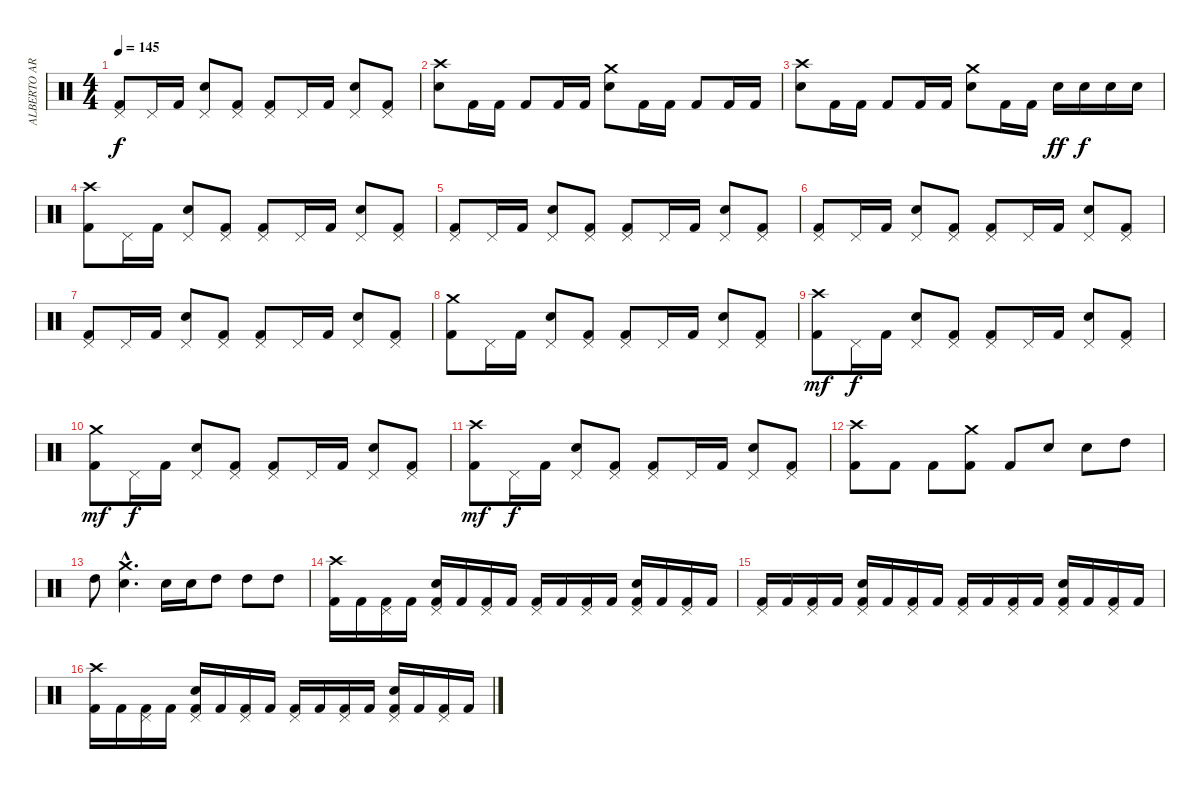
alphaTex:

\track ("ALBERTO ARDINES" "ALBERTO AR") {instrument percussion}
\staff {score}
\articulation defaults
\ts (4 4)
\tempo 145
\clef neutral
\ks c
("Pedal Hi-Hat (hit)" "Kick (hit) 2").8{dy f} "Pedal Hi-Hat (hit)".16 "Kick (hit) 2".16 ("Pedal Hi-Hat (hit)" "Electric Snare (hit)").8 ("Pedal Hi-Hat (hit)" "Kick (hit) 2").8 ("Pedal Hi-Hat (hit)" "Kick (hit) 2").8 "Pedal Hi-Hat (hit)".16 "Kick (hit) 2".16 ("Pedal Hi-Hat (hit)" "Electric Snare (hit)").8 ("Pedal Hi-Hat (hit)" "Kick (hit) 2").8 |
("Crash high (hit)" "Electric Snare (hit)").8 "Kick (hit) 2".16 "Kick (hit) 2".16 "Kick (hit) 2".8 "Kick (hit) 2".16 "Kick (hit) 2".16 ("Crash medium (hit)" "Electric Snare (hit)").8 "Kick (hit) 2".16 "Kick (hit) 2".16 "Kick (hit) 2".8 "Kick (hit) 2".16 "Kick (hit) 2".16 |
("Crash high (hit)" "Electric Snare (hit)").8 "Kick (hit) 2".16 "Kick (hit) 2".16 "Kick (hit) 2".8 "Kick (hit) 2".16 "Kick (hit) 2".16 ("Crash medium (hit)" "Electric Snare (hit)").8 "Kick (hit) 2".16 "Kick (hit) 2".16 "Electric Snare (hit)".16{dy ff} "Electric Snare (hit)".16{dy f} "Electric Snare (hit)".16 "Electric Snare (hit)".16 |
("Crash high (hit)" "Kick (hit) 2").8 "Pedal Hi-Hat (hit)".16 "Kick (hit) 2".16 ("Pedal Hi-Hat (hit)" "Electric Snare (hit)").8 ("Pedal Hi-Hat (hit)" "Kick (hit) 2").8 ("Pedal Hi-Hat (hit)" "Kick (hit) 2").8 "Pedal Hi-Hat (hit)".16 "Kick (hit) 2".16 ("Pedal Hi-Hat (hit)" "Electric Snare (hit)").8 ("Pedal Hi-Hat (hit)" "Kick (hit) 2").8 |
("Pedal Hi-Hat (hit)" "Kick (hit) 2").8 "Pedal Hi-Hat (hit)".16 "Kick (hit) 2".16 ("Pedal Hi-Hat (hit)" "Electric Snare (hit)").8 ("Pedal Hi-Hat (hit)" "Kick (hit) 2").8 ("Pedal Hi-Hat (hit)" "Kick (hit) 2").8 "Pedal Hi-Hat (hit)".16 "Kick (hit) 2".16 ("Pedal Hi-Hat (hit)" "Electric Snare (hit)").8 ("Pedal Hi-Hat (hit)" "Kick (hit) 2").8 |
("Pedal Hi-Hat (hit)" "Kick (hit) 2").8 "Pedal Hi-Hat (hit)".16 "Kick (hit) 2".16 ("Pedal Hi-Hat (hit)" "Electric Snare (hit)").8 ("Pedal Hi-Hat (hit)" "Kick (hit) 2").8 ("Pedal Hi-Hat (hit)" "Kick (hit) 2").8 "Pedal Hi-Hat (hit)".16 "Kick (hit) 2".16 ("Pedal Hi-Hat (hit)" "Electric Snare (hit)").8 ("Pedal Hi-Hat (hit)" "Kick (hit) 2").8 |
("Pedal Hi-Hat (hit)" "Kick (hit) 2").8 "Pedal Hi-Hat (hit)".16 "Kick (hit) 2".16 ("Pedal Hi-Hat (hit)" "Electric Snare (hit)").8 ("Pedal Hi-Hat (hit)" "Kick (hit) 2").8 ("Pedal Hi-Hat (hit)" "Kick (hit) 2").8 "Pedal Hi-Hat (hit)".16 "Kick (hit) 2".16 ("Pedal Hi-Hat (hit)" "Electric Snare (hit)").8 ("Pedal Hi-Hat (hit)" "Kick (hit) 2").8 |
("Crash medium (hit)" "Kick (hit) 2").8 "Pedal Hi-Hat (hit)".16 "Kick (hit) 2".16 ("Pedal Hi-Hat (hit)" "Electric Snare (hit)").8 ("Pedal Hi-Hat (hit)" "Kick (hit) 2").8 ("Pedal Hi-Hat (hit)" "Kick (hit) 2").8 "Pedal Hi-Hat (hit)".16 "Kick (hit) 2".16 ("Pedal Hi-Hat (hit)" "Electric Snare (hit)").8 ("Pedal Hi-Hat (hit)" "Kick (hit) 2").8 |
("Crash high (hit)" "Kick (hit) 2").8{dy mf} "Pedal Hi-Hat (hit)".16{dy f} "Kick (hit) 2".16 ("Pedal Hi-Hat (hit)" "Electric Snare (hit)").8 ("Pedal Hi-Hat (hit)" "Kick (hit) 2").8 ("Pedal Hi-Hat (hit)" "Kick (hit) 2").8 "Pedal Hi-Hat (hit)".16 "Kick (hit) 2".16 ("Pedal Hi-Hat (hit)" "Electric Snare (hit)").8 ("Pedal Hi-Hat (hit)" "Kick (hit) 2").8 |
("Crash medium (hit)" "Kick (hit) 2").8{dy mf} "Pedal Hi-Hat (hit)".16{dy f} "Kick (hit) 2".16 ("Pedal Hi-Hat (hit)" "Electric Snare (hit)").8 ("Pedal Hi-Hat (hit)" "Kick (hit) 2").8 ("Pedal Hi-Hat (hit)" "Kick (hit) 2").8 "Pedal Hi-Hat (hit)".16 "Kick (hit) 2".16 ("Pedal Hi-Hat (hit)" "Electric Snare (hit)").8 ("Pedal Hi-Hat (hit)" "Kick (hit) 2").8 |
("Crash high (hit)" "Kick (hit) 2").8{dy mf} "Pedal Hi-Hat (hit)".16{dy f} "Kick (hit) 2".16 ("Pedal Hi-Hat (hit)" "Electric Snare (hit)").8 ("Pedal Hi-Hat (hit)" "Kick (hit) 2").8 ("Pedal Hi-Hat (hit)" "Kick (hit) 2").8 "Pedal Hi-Hat (hit)".16 "Kick (hit) 2".16 ("Pedal Hi-Hat (hit)" "Electric Snare (hit)").8 ("Pedal Hi-Hat (hit)" "Kick (hit) 2").8 |
("Crash high (hit)" "Kick (hit) 2").8 "Kick (hit) 2".8 "Kick (hit) 2".8 ("Crash medium (hit)" "Kick (hit) 2").8 "Kick (hit) 2".8 "Electric Snare (hit)".8 "Electric Snare (hit)".8 "High Tom (hit)".8 |
"High Tom (hit)".8 ("Crash medium (hit)"{hac} "Electric Snare (hit)"{hac}).4{d} "Electric Snare (hit)".16 "Electric Snare (hit)".16 "High Tom (hit)".8 "High Tom (hit)".8 "High Tom (hit)".8 |
("Crash high (hit)" "Kick (hit) 2").16 "Kick (hit) 2".16 ("Pedal Hi-Hat (hit)" "Kick (hit) 2").16 "Kick (hit) 2".16 ("Pedal Hi-Hat (hit)" "Electric Snare (hit)" "Kick (hit) 2").16 "Kick (hit) 2".16 ("Pedal Hi-Hat (hit)" "Kick (hit) 2").16 "Kick (hit) 2".16 ("Pedal Hi-Hat (hit)" "Kick (hit) 2").16 "Kick (hit) 2".16 ("Pedal Hi-Hat (hit)" "Kick (hit) 2").16 "Kick (hit) 2".16 ("Pedal Hi-Hat (hit)" "Electric Snare (hit)" "Kick (hit) 2").16 "Kick (hit) 2".16 ("Pedal Hi-Hat (hit)" "Kick (hit) 2").16 "Kick (hit) 2".16 |
("Pedal Hi-Hat (hit)" "Kick (hit) 2").16 "Kick (hit) 2".16 ("Pedal Hi-Hat (hit)" "Kick (hit) 2").16 "Kick (hit) 2".16 ("Pedal Hi-Hat (hit)" "Electric Snare (hit)" "Kick (hit) 2").16 "Kick (hit) 2".16 ("Pedal Hi-Hat (hit)" "Kick (hit) 2").16 "Kick (hit) 2".16 ("Pedal Hi-Hat (hit)" "Kick (hit) 2").16 "Kick (hit) 2".16 ("Pedal Hi-Hat (hit)" "Kick (hit) 2").16 "Kick (hit) 2".16 ("Pedal Hi-Hat (hit)" "Electric Snare (hit)" "Kick (hit) 2").16 "Kick (hit) 2".16 ("Pedal Hi-Hat (hit)" "Kick (hit) 2").16 "Kick (hit) 2".16 |
("Crash high (hit)" "Kick (hit) 2").16 "Kick (hit) 2".16 ("Pedal Hi-Hat (hit)" "Kick (hit) 2").16 "Kick (hit) 2".16 ("Pedal Hi-Hat (hit)" "Electric Snare (hit)" "Kick (hit) 2").16 "Kick (hit) 2".16 ("Pedal Hi-Hat (hit)" "Kick (hit) 2").16 "Kick (hit) 2".16 ("Pedal Hi-Hat (hit)" "Kick (hit) 2").16 "Kick (hit) 2".16 ("Pedal Hi-Hat (hit)" "Kick (hit) 2").16 "Kick (hit) 2".16 ("Pedal Hi-Hat (hit)" "Electric Snare (hit)" "Kick (hit) 2").16 "Kick (hit) 2".16 ("Pedal Hi-Hat (hit)" "Kick (hit) 2").16 "Kick (hit) 2".16
